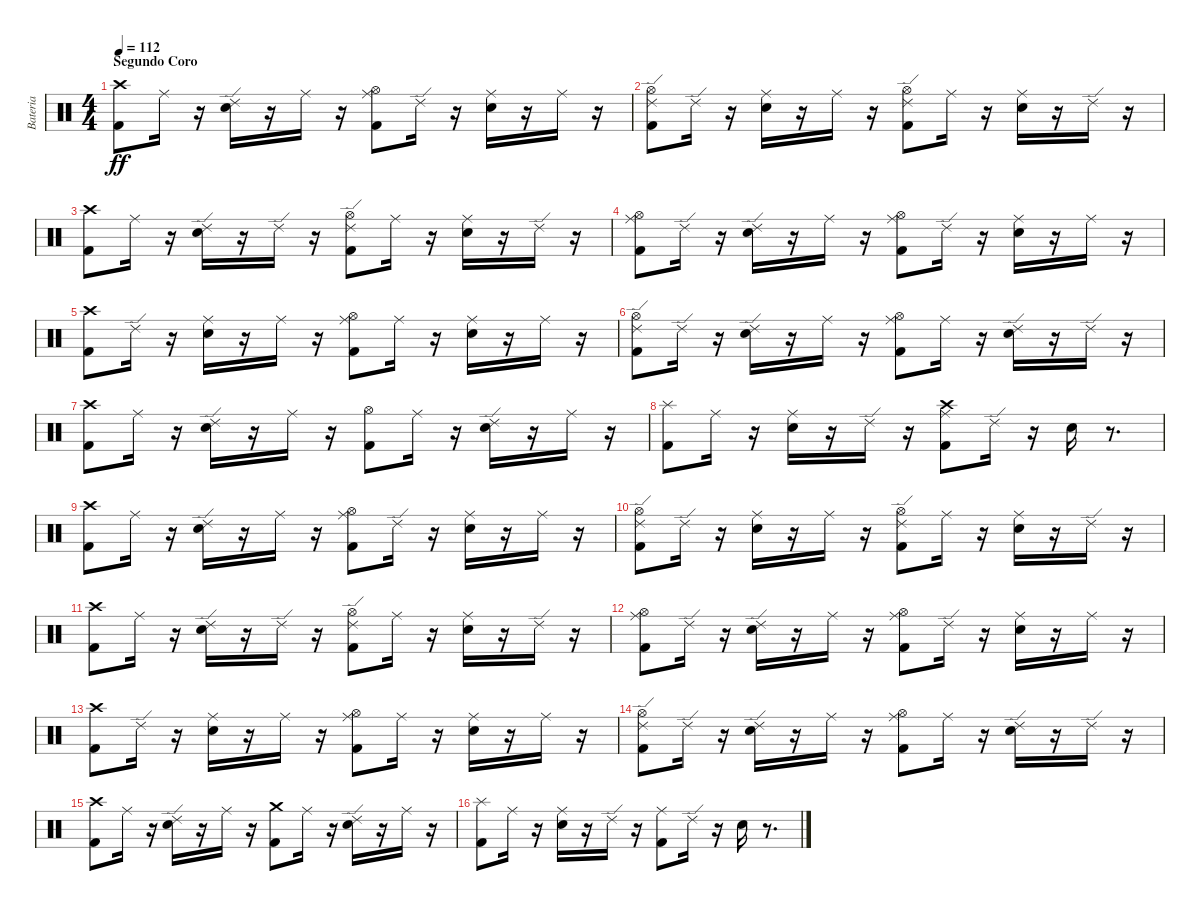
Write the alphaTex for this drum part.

\track ("Bateria" "Bateria") {instrument percussion}
\staff {score}
\articulation defaults
\ts (4 4)
\section ("" "Segundo Coro")
\tempo 112
\clef neutral
\ks c
("Crash high (hit)" "Kick (hit) 2").8{dy ff} "Ride (middle)".16 r.16 ("Ride (edge) 2" "Snare (hit) 2").16 r.16 "Ride (middle)".16 r.16 ("Ride (middle)" "Hi-Hat (open)" "Kick (hit) 2").8 "Ride (edge) 2".16 r.16 ("Ride (middle)" "Snare (hit) 2").16 r.16 "Ride (middle)".16 r.16 |
("Ride (edge) 2" "Kick (hit) 2" "Hi-Hat (open)").8 "Ride (edge) 2".16 r.16 ("Ride (middle)" "Snare (hit) 2").16 r.16 "Ride (middle)".16 r.16 ("Ride (edge) 2" "Kick (hit) 2" "Hi-Hat (open)").8 "Ride (middle)".16 r.16 ("Ride (middle)" "Snare (hit) 2").16 r.16 "Ride (edge) 2".16 r.16 |
("Kick (hit) 2" "Crash high (hit)").8 "Ride (middle)".16 r.16 ("Ride (edge) 2" "Snare (hit) 2").16 r.16 "Ride (edge) 2".16 r.16 ("Ride (edge) 2" "Kick (hit) 2" "Hi-Hat (open)").8 "Ride (middle)".16 r.16 ("Ride (middle)" "Snare (hit) 2").16 r.16 "Ride (edge) 2".16 r.16 |
("Ride (middle)" "Hi-Hat (open)" "Kick (hit) 2").8 "Ride (edge) 2".16 r.16 ("Ride (edge) 2" "Snare (hit) 2").16 r.16 "Ride (middle)".16 r.16 ("Ride (middle)" "Kick (hit) 2" "Hi-Hat (open)").8 "Ride (edge) 2".16 r.16 ("Ride (middle)" "Snare (hit) 2").16 r.16 "Ride (middle)".16 r.16 |
("Kick (hit) 2" "Crash high (hit)").8 "Ride (edge) 2".16 r.16 ("Ride (middle)" "Snare (hit) 2").16 r.16 "Ride (middle)".16 r.16 ("Ride (middle)" "Kick (hit) 2" "Hi-Hat (open)").8 "Ride (middle)".16 r.16 ("Ride (middle)" "Snare (hit) 2").16 r.16 "Ride (middle)".16 r.16 |
("Ride (edge) 2" "Kick (hit) 2" "Hi-Hat (open)").8 "Ride (edge) 2".16 r.16 ("Ride (edge) 2" "Snare (hit) 2").16 r.16 "Ride (middle)".16 r.16 ("Ride (middle)" "Kick (hit) 2" "Hi-Hat (open)").8 "Ride (middle)".16 r.16 ("Ride (edge) 2" "Snare (hit) 2").16 r.16 "Ride (edge) 2".16 r.16 |
("Kick (hit) 2" "Crash high (hit)").8 "Ride (middle)".16 r.16 ("Ride (edge) 2" "Snare (hit) 2").16 r.16 "Ride (middle)".16 r.16 ("Kick (hit) 2" "Hi-Hat (open)").8 "Ride (middle)".16 r.16 ("Ride (edge) 2" "Snare (hit) 2").16 r.16 "Ride (middle)".16 r.16 |
("Kick (hit) 2" "Splash (hit)").8 "Ride (middle)".16 r.16 ("Ride (middle)" "Snare (hit) 2").16 r.16 "Ride (edge) 2".16 r.16 ("Ride (middle)" "Kick (hit) 2" "Crash high (hit)").8 "Ride (edge) 2".16 r.16 "Snare (hit) 2".16 r.8{d} |
("Crash high (hit)" "Kick (hit) 2").8 "Ride (middle)".16 r.16 ("Ride (edge) 2" "Snare (hit) 2").16 r.16 "Ride (middle)".16 r.16 ("Ride (middle)" "Hi-Hat (open)" "Kick (hit) 2").8 "Ride (edge) 2".16 r.16 ("Ride (middle)" "Snare (hit) 2").16 r.16 "Ride (middle)".16 r.16 |
("Ride (edge) 2" "Kick (hit) 2" "Hi-Hat (open)").8 "Ride (edge) 2".16 r.16 ("Ride (middle)" "Snare (hit) 2").16 r.16 "Ride (middle)".16 r.16 ("Ride (edge) 2" "Kick (hit) 2" "Hi-Hat (open)").8 "Ride (middle)".16 r.16 ("Ride (middle)" "Snare (hit) 2").16 r.16 "Ride (edge) 2".16 r.16 |
("Kick (hit) 2" "Crash high (hit)").8 "Ride (middle)".16 r.16 ("Ride (edge) 2" "Snare (hit) 2").16 r.16 "Ride (edge) 2".16 r.16 ("Ride (edge) 2" "Kick (hit) 2" "Hi-Hat (open)").8 "Ride (middle)".16 r.16 ("Ride (middle)" "Snare (hit) 2").16 r.16 "Ride (edge) 2".16 r.16 |
("Ride (middle)" "Hi-Hat (open)" "Kick (hit) 2").8 "Ride (edge) 2".16 r.16 ("Ride (edge) 2" "Snare (hit) 2").16 r.16 "Ride (middle)".16 r.16 ("Ride (middle)" "Kick (hit) 2" "Hi-Hat (open)").8 "Ride (edge) 2".16 r.16 ("Ride (middle)" "Snare (hit) 2").16 r.16 "Ride (middle)".16 r.16 |
("Kick (hit) 2" "Crash high (hit)").8 "Ride (edge) 2".16 r.16 ("Ride (middle)" "Snare (hit) 2").16 r.16 "Ride (middle)".16 r.16 ("Ride (middle)" "Kick (hit) 2" "Hi-Hat (open)").8 "Ride (middle)".16 r.16 ("Ride (middle)" "Snare (hit) 2").16 r.16 "Ride (middle)".16 r.16 |
("Ride (edge) 2" "Kick (hit) 2" "Hi-Hat (open)").8 "Ride (edge) 2".16 r.16 ("Ride (edge) 2" "Snare (hit) 2").16 r.16 "Ride (middle)".16 r.16 ("Ride (middle)" "Kick (hit) 2" "Hi-Hat (open)").8 "Ride (middle)".16 r.16 ("Ride (edge) 2" "Snare (hit) 2").16 r.16 "Ride (edge) 2".16 r.16 |
("Crash high (hit)" "Kick (hit) 2").8 "Ride (middle)".16 r.16 ("Ride (edge) 2" "Snare (hit) 2").16 r.16 "Ride (middle)".16 r.16 ("Crash medium (hit)" "Kick (hit) 2").8 "Ride (middle)".16 r.16 ("Ride (edge) 2" "Snare (hit) 2").16 r.16 "Ride (middle)".16 r.16 |
("Splash (hit)" "Kick (hit) 2").8 "Ride (middle)".16 r.16 ("Ride (middle)" "Snare (hit) 2").16 r.16 "Ride (edge) 2".16 r.16 ("Ride (middle)" "Kick (hit) 2").8 "Ride (edge) 2".16 r.16 "Snare (hit) 2".16 r.8{d}
